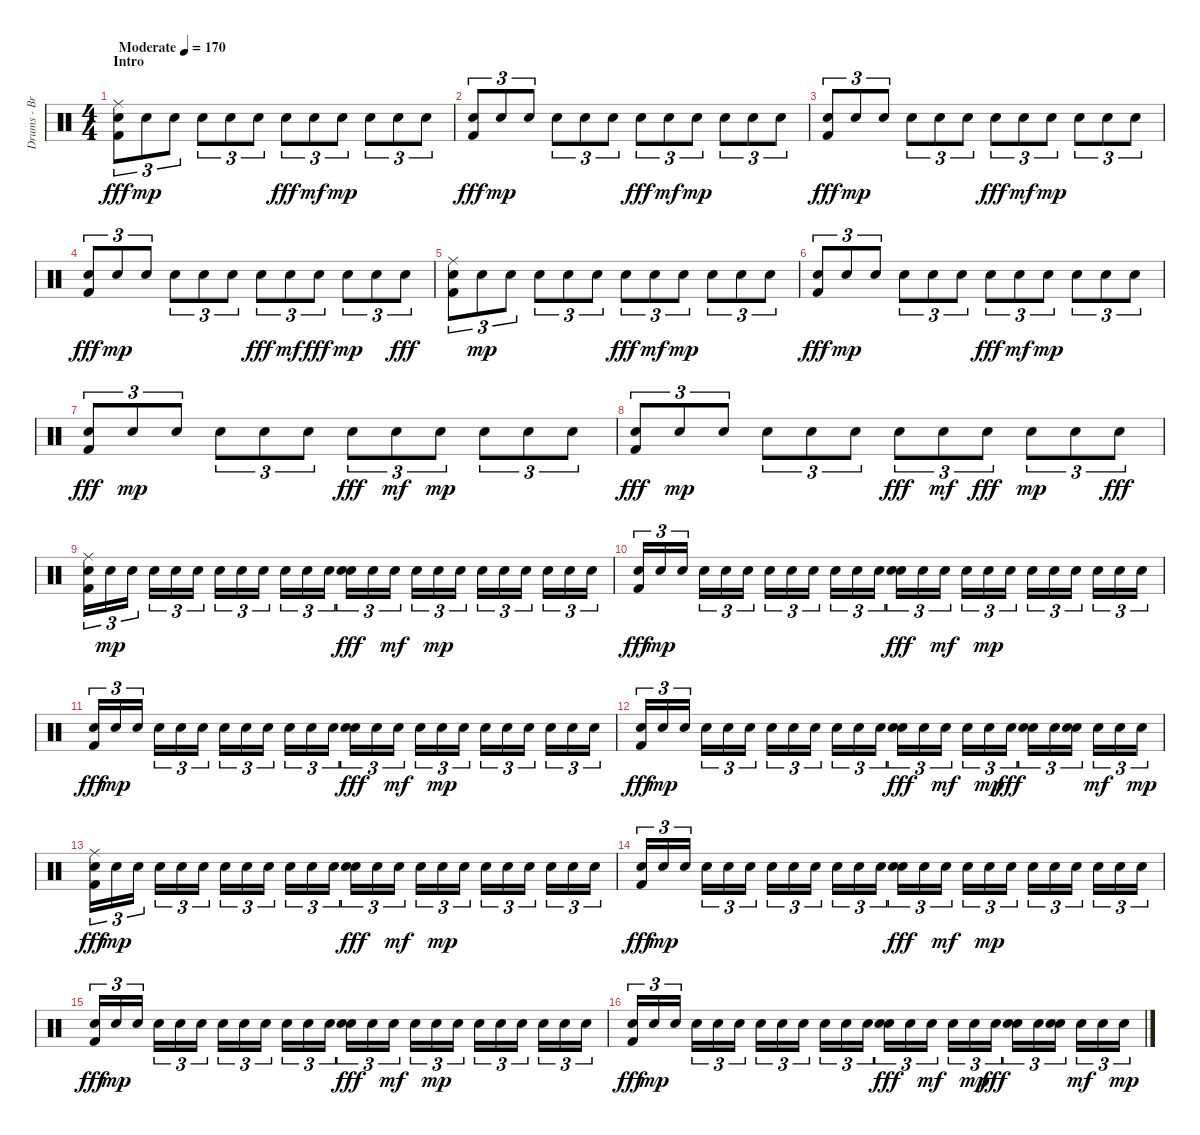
\track ("Drums - Brandon" "Drums - Br") {instrument percussion}
\staff {score}
\articulation defaults
\ts (4 4)
\section ("" "Intro")
\tempo (170 "Moderate")
\clef neutral
\ks c
("Ride (middle)" "Electric Snare (hit)" "Kick (hit) 2").8{tu (3 2) dy fff} "Electric Snare (hit)".8{tu (3 2) dy mp} "Electric Snare (hit)".8{tu (3 2)} "Electric Snare (hit)".8{tu (3 2)} "Electric Snare (hit)".8{tu (3 2)} "Electric Snare (hit)".8{tu (3 2)} "Electric Snare (hit)".8{tu (3 2) dy fff} "Electric Snare (hit)".8{tu (3 2) dy mf} "Electric Snare (hit)".8{tu (3 2) dy mp} "Electric Snare (hit)".8{tu (3 2)} "Electric Snare (hit)".8{tu (3 2)} "Electric Snare (hit)".8{tu (3 2)} |
("Electric Snare (hit)" "Kick (hit) 2").8{tu (3 2) dy fff} "Electric Snare (hit)".8{tu (3 2) dy mp} "Electric Snare (hit)".8{tu (3 2)} "Electric Snare (hit)".8{tu (3 2)} "Electric Snare (hit)".8{tu (3 2)} "Electric Snare (hit)".8{tu (3 2)} "Electric Snare (hit)".8{tu (3 2) dy fff} "Electric Snare (hit)".8{tu (3 2) dy mf} "Electric Snare (hit)".8{tu (3 2) dy mp} "Electric Snare (hit)".8{tu (3 2)} "Electric Snare (hit)".8{tu (3 2)} "Electric Snare (hit)".8{tu (3 2)} |
("Electric Snare (hit)" "Kick (hit) 2").8{tu (3 2) dy fff} "Electric Snare (hit)".8{tu (3 2) dy mp} "Electric Snare (hit)".8{tu (3 2)} "Electric Snare (hit)".8{tu (3 2)} "Electric Snare (hit)".8{tu (3 2)} "Electric Snare (hit)".8{tu (3 2)} "Electric Snare (hit)".8{tu (3 2) dy fff} "Electric Snare (hit)".8{tu (3 2) dy mf} "Electric Snare (hit)".8{tu (3 2) dy mp} "Electric Snare (hit)".8{tu (3 2)} "Electric Snare (hit)".8{tu (3 2)} "Electric Snare (hit)".8{tu (3 2)} |
("Electric Snare (hit)" "Kick (hit) 2").8{tu (3 2) dy fff} "Electric Snare (hit)".8{tu (3 2) dy mp} "Electric Snare (hit)".8{tu (3 2)} "Electric Snare (hit)".8{tu (3 2)} "Electric Snare (hit)".8{tu (3 2)} "Electric Snare (hit)".8{tu (3 2)} "Electric Snare (hit)".8{tu (3 2) dy fff} "Electric Snare (hit)".8{tu (3 2) dy mf} "Electric Snare (hit)".8{tu (3 2) dy fff} "Electric Snare (hit)".8{tu (3 2) dy mp} "Electric Snare (hit)".8{tu (3 2)} "Electric Snare (hit)".8{tu (3 2) dy fff} |
("Ride (middle)" "Electric Snare (hit)" "Kick (hit) 2").8{tu (3 2)} "Electric Snare (hit)".8{tu (3 2) dy mp} "Electric Snare (hit)".8{tu (3 2)} "Electric Snare (hit)".8{tu (3 2)} "Electric Snare (hit)".8{tu (3 2)} "Electric Snare (hit)".8{tu (3 2)} "Electric Snare (hit)".8{tu (3 2) dy fff} "Electric Snare (hit)".8{tu (3 2) dy mf} "Electric Snare (hit)".8{tu (3 2) dy mp} "Electric Snare (hit)".8{tu (3 2)} "Electric Snare (hit)".8{tu (3 2)} "Electric Snare (hit)".8{tu (3 2)} |
("Electric Snare (hit)" "Kick (hit) 2").8{tu (3 2) dy fff} "Electric Snare (hit)".8{tu (3 2) dy mp} "Electric Snare (hit)".8{tu (3 2)} "Electric Snare (hit)".8{tu (3 2)} "Electric Snare (hit)".8{tu (3 2)} "Electric Snare (hit)".8{tu (3 2)} "Electric Snare (hit)".8{tu (3 2) dy fff} "Electric Snare (hit)".8{tu (3 2) dy mf} "Electric Snare (hit)".8{tu (3 2) dy mp} "Electric Snare (hit)".8{tu (3 2)} "Electric Snare (hit)".8{tu (3 2)} "Electric Snare (hit)".8{tu (3 2)} |
("Electric Snare (hit)" "Kick (hit) 2").8{tu (3 2) dy fff} "Electric Snare (hit)".8{tu (3 2) dy mp} "Electric Snare (hit)".8{tu (3 2)} "Electric Snare (hit)".8{tu (3 2)} "Electric Snare (hit)".8{tu (3 2)} "Electric Snare (hit)".8{tu (3 2)} "Electric Snare (hit)".8{tu (3 2) dy fff} "Electric Snare (hit)".8{tu (3 2) dy mf} "Electric Snare (hit)".8{tu (3 2) dy mp} "Electric Snare (hit)".8{tu (3 2)} "Electric Snare (hit)".8{tu (3 2)} "Electric Snare (hit)".8{tu (3 2)} |
("Electric Snare (hit)" "Kick (hit) 2").8{tu (3 2) dy fff} "Electric Snare (hit)".8{tu (3 2) dy mp} "Electric Snare (hit)".8{tu (3 2)} "Electric Snare (hit)".8{tu (3 2)} "Electric Snare (hit)".8{tu (3 2)} "Electric Snare (hit)".8{tu (3 2)} "Electric Snare (hit)".8{tu (3 2) dy fff} "Electric Snare (hit)".8{tu (3 2) dy mf} "Electric Snare (hit)".8{tu (3 2) dy fff} "Electric Snare (hit)".8{tu (3 2) dy mp} "Electric Snare (hit)".8{tu (3 2)} "Electric Snare (hit)".8{tu (3 2) dy fff} |
("Ride (middle)" "Electric Snare (hit)" "Kick (hit) 2").16{tu (3 2)} "Electric Snare (hit)".16{tu (3 2) dy mp} "Electric Snare (hit)".16{tu (3 2) beam splitsecondary} "Electric Snare (hit)".16{tu (3 2)} "Electric Snare (hit)".16{tu (3 2)} "Electric Snare (hit)".16{tu (3 2)} "Electric Snare (hit)".16{tu (3 2)} "Electric Snare (hit)".16{tu (3 2)} "Electric Snare (hit)".16{tu (3 2) beam splitsecondary} "Electric Snare (hit)".16{tu (3 2)} "Electric Snare (hit)".16{tu (3 2)} "Electric Snare (hit)".16{tu (3 2)} ("Snare (hit) 2" "Electric Snare (hit)").16{tu (3 2) dy fff} "Electric Snare (hit)".16{tu (3 2)} "Electric Snare (hit)".16{tu (3 2) dy mf beam splitsecondary} "Electric Snare (hit)".16{tu (3 2)} "Electric Snare (hit)".16{tu (3 2) dy mp} "Electric Snare (hit)".16{tu (3 2)} "Electric Snare (hit)".16{tu (3 2)} "Electric Snare (hit)".16{tu (3 2)} "Electric Snare (hit)".16{tu (3 2) beam splitsecondary} "Electric Snare (hit)".16{tu (3 2)} "Electric Snare (hit)".16{tu (3 2)} "Electric Snare (hit)".16{tu (3 2)} |
("Electric Snare (hit)" "Kick (hit) 2").16{tu (3 2) dy fff} "Electric Snare (hit)".16{tu (3 2) dy mp} "Electric Snare (hit)".16{tu (3 2) beam splitsecondary} "Electric Snare (hit)".16{tu (3 2)} "Electric Snare (hit)".16{tu (3 2)} "Electric Snare (hit)".16{tu (3 2)} "Electric Snare (hit)".16{tu (3 2)} "Electric Snare (hit)".16{tu (3 2)} "Electric Snare (hit)".16{tu (3 2) beam splitsecondary} "Electric Snare (hit)".16{tu (3 2)} "Electric Snare (hit)".16{tu (3 2)} "Electric Snare (hit)".16{tu (3 2)} ("Snare (hit) 2" "Electric Snare (hit)").16{tu (3 2) dy fff} "Electric Snare (hit)".16{tu (3 2)} "Electric Snare (hit)".16{tu (3 2) dy mf beam splitsecondary} "Electric Snare (hit)".16{tu (3 2)} "Electric Snare (hit)".16{tu (3 2) dy mp} "Electric Snare (hit)".16{tu (3 2)} "Electric Snare (hit)".16{tu (3 2)} "Electric Snare (hit)".16{tu (3 2)} "Electric Snare (hit)".16{tu (3 2) beam splitsecondary} "Electric Snare (hit)".16{tu (3 2)} "Electric Snare (hit)".16{tu (3 2)} "Electric Snare (hit)".16{tu (3 2)} |
("Electric Snare (hit)" "Kick (hit) 2").16{tu (3 2) dy fff} "Electric Snare (hit)".16{tu (3 2) dy mp} "Electric Snare (hit)".16{tu (3 2) beam splitsecondary} "Electric Snare (hit)".16{tu (3 2)} "Electric Snare (hit)".16{tu (3 2)} "Electric Snare (hit)".16{tu (3 2)} "Electric Snare (hit)".16{tu (3 2)} "Electric Snare (hit)".16{tu (3 2)} "Electric Snare (hit)".16{tu (3 2) beam splitsecondary} "Electric Snare (hit)".16{tu (3 2)} "Electric Snare (hit)".16{tu (3 2)} "Electric Snare (hit)".16{tu (3 2)} ("Snare (hit) 2" "Electric Snare (hit)").16{tu (3 2) dy fff} "Electric Snare (hit)".16{tu (3 2)} "Electric Snare (hit)".16{tu (3 2) dy mf beam splitsecondary} "Electric Snare (hit)".16{tu (3 2)} "Electric Snare (hit)".16{tu (3 2) dy mp} "Electric Snare (hit)".16{tu (3 2)} "Electric Snare (hit)".16{tu (3 2)} "Electric Snare (hit)".16{tu (3 2)} "Electric Snare (hit)".16{tu (3 2) beam splitsecondary} "Electric Snare (hit)".16{tu (3 2)} "Electric Snare (hit)".16{tu (3 2)} "Electric Snare (hit)".16{tu (3 2)} |
("Electric Snare (hit)" "Kick (hit) 2").16{tu (3 2) dy fff} "Electric Snare (hit)".16{tu (3 2) dy mp} "Electric Snare (hit)".16{tu (3 2) beam splitsecondary} "Electric Snare (hit)".16{tu (3 2)} "Electric Snare (hit)".16{tu (3 2)} "Electric Snare (hit)".16{tu (3 2)} "Electric Snare (hit)".16{tu (3 2)} "Electric Snare (hit)".16{tu (3 2)} "Electric Snare (hit)".16{tu (3 2) beam splitsecondary} "Electric Snare (hit)".16{tu (3 2)} "Electric Snare (hit)".16{tu (3 2)} "Electric Snare (hit)".16{tu (3 2)} ("Snare (hit) 2" "Electric Snare (hit)").16{tu (3 2) dy fff} "Electric Snare (hit)".16{tu (3 2)} "Electric Snare (hit)".16{tu (3 2) dy mf beam splitsecondary} "Electric Snare (hit)".16{tu (3 2)} "Electric Snare (hit)".16{tu (3 2) dy mp} "Electric Snare (hit)".16{tu (3 2) dy fff} ("Snare (hit) 2" "Electric Snare (hit)").16{tu (3 2)} "Electric Snare (hit)".16{tu (3 2)} ("Snare (hit) 2" "Electric Snare (hit)").16{tu (3 2) beam splitsecondary} "Electric Snare (hit)".16{tu (3 2) dy mf} "Electric Snare (hit)".16{tu (3 2)} "Electric Snare (hit)".16{tu (3 2) dy mp} |
("Ride (middle)" "Electric Snare (hit)" "Kick (hit) 2").16{tu (3 2) dy fff} "Electric Snare (hit)".16{tu (3 2) dy mp} "Electric Snare (hit)".16{tu (3 2) beam splitsecondary} "Electric Snare (hit)".16{tu (3 2)} "Electric Snare (hit)".16{tu (3 2)} "Electric Snare (hit)".16{tu (3 2)} "Electric Snare (hit)".16{tu (3 2)} "Electric Snare (hit)".16{tu (3 2)} "Electric Snare (hit)".16{tu (3 2) beam splitsecondary} "Electric Snare (hit)".16{tu (3 2)} "Electric Snare (hit)".16{tu (3 2)} "Electric Snare (hit)".16{tu (3 2)} ("Snare (hit) 2" "Electric Snare (hit)").16{tu (3 2) dy fff} "Electric Snare (hit)".16{tu (3 2)} "Electric Snare (hit)".16{tu (3 2) dy mf beam splitsecondary} "Electric Snare (hit)".16{tu (3 2)} "Electric Snare (hit)".16{tu (3 2) dy mp} "Electric Snare (hit)".16{tu (3 2)} "Electric Snare (hit)".16{tu (3 2)} "Electric Snare (hit)".16{tu (3 2)} "Electric Snare (hit)".16{tu (3 2) beam splitsecondary} "Electric Snare (hit)".16{tu (3 2)} "Electric Snare (hit)".16{tu (3 2)} "Electric Snare (hit)".16{tu (3 2)} |
("Electric Snare (hit)" "Kick (hit) 2").16{tu (3 2) dy fff} "Electric Snare (hit)".16{tu (3 2) dy mp} "Electric Snare (hit)".16{tu (3 2) beam splitsecondary} "Electric Snare (hit)".16{tu (3 2)} "Electric Snare (hit)".16{tu (3 2)} "Electric Snare (hit)".16{tu (3 2)} "Electric Snare (hit)".16{tu (3 2)} "Electric Snare (hit)".16{tu (3 2)} "Electric Snare (hit)".16{tu (3 2) beam splitsecondary} "Electric Snare (hit)".16{tu (3 2)} "Electric Snare (hit)".16{tu (3 2)} "Electric Snare (hit)".16{tu (3 2)} ("Snare (hit) 2" "Electric Snare (hit)").16{tu (3 2) dy fff} "Electric Snare (hit)".16{tu (3 2)} "Electric Snare (hit)".16{tu (3 2) dy mf beam splitsecondary} "Electric Snare (hit)".16{tu (3 2)} "Electric Snare (hit)".16{tu (3 2) dy mp} "Electric Snare (hit)".16{tu (3 2)} "Electric Snare (hit)".16{tu (3 2)} "Electric Snare (hit)".16{tu (3 2)} "Electric Snare (hit)".16{tu (3 2) beam splitsecondary} "Electric Snare (hit)".16{tu (3 2)} "Electric Snare (hit)".16{tu (3 2)} "Electric Snare (hit)".16{tu (3 2)} |
("Electric Snare (hit)" "Kick (hit) 2").16{tu (3 2) dy fff} "Electric Snare (hit)".16{tu (3 2) dy mp} "Electric Snare (hit)".16{tu (3 2) beam splitsecondary} "Electric Snare (hit)".16{tu (3 2)} "Electric Snare (hit)".16{tu (3 2)} "Electric Snare (hit)".16{tu (3 2)} "Electric Snare (hit)".16{tu (3 2)} "Electric Snare (hit)".16{tu (3 2)} "Electric Snare (hit)".16{tu (3 2) beam splitsecondary} "Electric Snare (hit)".16{tu (3 2)} "Electric Snare (hit)".16{tu (3 2)} "Electric Snare (hit)".16{tu (3 2)} ("Snare (hit) 2" "Electric Snare (hit)").16{tu (3 2) dy fff} "Electric Snare (hit)".16{tu (3 2)} "Electric Snare (hit)".16{tu (3 2) dy mf beam splitsecondary} "Electric Snare (hit)".16{tu (3 2)} "Electric Snare (hit)".16{tu (3 2) dy mp} "Electric Snare (hit)".16{tu (3 2)} "Electric Snare (hit)".16{tu (3 2)} "Electric Snare (hit)".16{tu (3 2)} "Electric Snare (hit)".16{tu (3 2) beam splitsecondary} "Electric Snare (hit)".16{tu (3 2)} "Electric Snare (hit)".16{tu (3 2)} "Electric Snare (hit)".16{tu (3 2)} |
("Electric Snare (hit)" "Kick (hit) 2").16{tu (3 2) dy fff} "Electric Snare (hit)".16{tu (3 2) dy mp} "Electric Snare (hit)".16{tu (3 2) beam splitsecondary} "Electric Snare (hit)".16{tu (3 2)} "Electric Snare (hit)".16{tu (3 2)} "Electric Snare (hit)".16{tu (3 2)} "Electric Snare (hit)".16{tu (3 2)} "Electric Snare (hit)".16{tu (3 2)} "Electric Snare (hit)".16{tu (3 2) beam splitsecondary} "Electric Snare (hit)".16{tu (3 2)} "Electric Snare (hit)".16{tu (3 2)} "Electric Snare (hit)".16{tu (3 2)} ("Snare (hit) 2" "Electric Snare (hit)").16{tu (3 2) dy fff} "Electric Snare (hit)".16{tu (3 2)} "Electric Snare (hit)".16{tu (3 2) dy mf beam splitsecondary} "Electric Snare (hit)".16{tu (3 2)} "Electric Snare (hit)".16{tu (3 2) dy mp} "Electric Snare (hit)".16{tu (3 2) dy fff} ("Snare (hit) 2" "Electric Snare (hit)").16{tu (3 2)} "Electric Snare (hit)".16{tu (3 2)} ("Snare (hit) 2" "Electric Snare (hit)").16{tu (3 2) beam splitsecondary} "Electric Snare (hit)".16{tu (3 2) dy mf} "Electric Snare (hit)".16{tu (3 2)} "Electric Snare (hit)".16{tu (3 2) dy mp}
